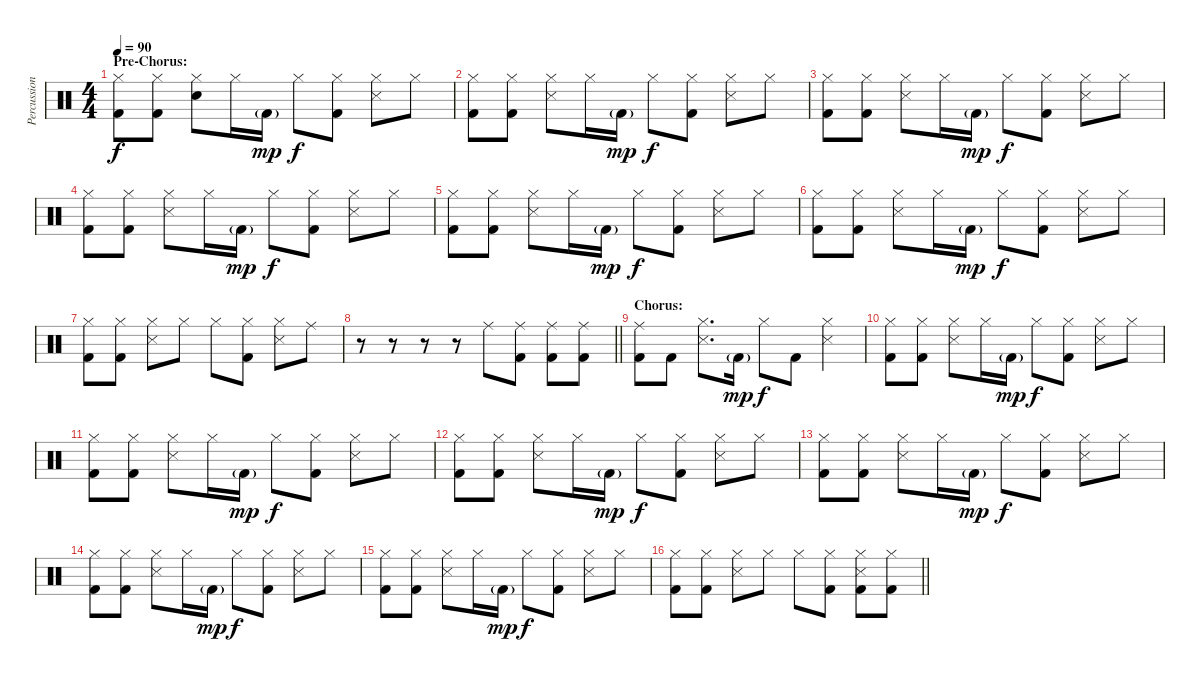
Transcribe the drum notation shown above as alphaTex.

\track ("Percussion" "Percussion") {instrument percussion}
\staff {score}
\articulation defaults
\ts (4 4)
\section ("" "Pre-Chorus:")
\tempo 90
\clef neutral
\ks c
("Hi-Hat (closed)" "Kick (hit) 2").8{dy f} ("Hi-Hat (closed)" "Kick (hit) 2").8 ("Hi-Hat (closed)" "Electric Snare (hit)").8 "Hi-Hat (closed)".16 "Kick (hit) 2"{g}.16{dy mp} "Hi-Hat (closed)".8{dy f} ("Hi-Hat (closed)" "Kick (hit) 2").8 ("Hi-Hat (closed)" "Snare (side stick) 3").8 "Hi-Hat (closed)".8 |
("Hi-Hat (closed)" "Kick (hit) 2").8 ("Hi-Hat (closed)" "Kick (hit) 2").8 ("Hi-Hat (closed)" "Snare (side stick) 3").8 "Hi-Hat (closed)".16 "Kick (hit) 2"{g}.16{dy mp} "Hi-Hat (closed)".8{dy f} ("Hi-Hat (closed)" "Kick (hit) 2").8 ("Hi-Hat (closed)" "Snare (side stick) 3").8 "Hi-Hat (closed)".8 |
("Hi-Hat (closed)" "Kick (hit) 2").8 ("Hi-Hat (closed)" "Kick (hit) 2").8 ("Hi-Hat (closed)" "Snare (side stick) 3").8 "Hi-Hat (closed)".16 "Kick (hit) 2"{g}.16{dy mp} "Hi-Hat (closed)".8{dy f} ("Hi-Hat (closed)" "Kick (hit) 2").8 ("Hi-Hat (closed)" "Snare (side stick) 3").8 "Hi-Hat (closed)".8 |
("Hi-Hat (closed)" "Kick (hit) 2").8 ("Hi-Hat (closed)" "Kick (hit) 2").8 ("Hi-Hat (closed)" "Snare (side stick) 3").8 "Hi-Hat (closed)".16 "Kick (hit) 2"{g}.16{dy mp} "Hi-Hat (closed)".8{dy f} ("Hi-Hat (closed)" "Kick (hit) 2").8 ("Hi-Hat (closed)" "Snare (side stick) 3").8 "Hi-Hat (closed)".8 |
("Hi-Hat (closed)" "Kick (hit) 2").8 ("Hi-Hat (closed)" "Kick (hit) 2").8 ("Hi-Hat (closed)" "Snare (side stick) 3").8 "Hi-Hat (closed)".16 "Kick (hit) 2"{g}.16{dy mp} "Hi-Hat (closed)".8{dy f} ("Hi-Hat (closed)" "Kick (hit) 2").8 ("Hi-Hat (closed)" "Snare (side stick) 3").8 "Hi-Hat (closed)".8 |
("Hi-Hat (closed)" "Kick (hit) 2").8 ("Hi-Hat (closed)" "Kick (hit) 2").8 ("Hi-Hat (closed)" "Snare (side stick) 3").8 "Hi-Hat (closed)".16 "Kick (hit) 2"{g}.16{dy mp} "Hi-Hat (closed)".8{dy f} ("Hi-Hat (closed)" "Kick (hit) 2").8 ("Hi-Hat (closed)" "Snare (side stick) 3").8 "Hi-Hat (closed)".8 |
("Hi-Hat (closed)" "Kick (hit) 2").8 ("Hi-Hat (closed)" "Kick (hit) 2").8 ("Hi-Hat (closed)" "Snare (side stick) 3").8 "Hi-Hat (closed)".8 "Hi-Hat (closed)".8 ("Hi-Hat (closed)" "Kick (hit) 2").8 ("Hi-Hat (closed)" "Snare (side stick) 3").8 "Ride (middle)".8 |
\barLineRight lightlight
r.8 r.8 r.8 r.8 "Ride (middle)".8 ("Ride (middle)" "Kick (hit) 2").8 ("Ride (middle)" "Kick (hit) 2").8 ("Ride (middle)" "Kick (hit) 2").8 |
\section ("" "Chorus:")
("Ride (middle)" "Kick (hit) 2").8 "Kick (hit) 2".8 ("Hi-Hat (closed)" "Snare (side stick) 3").8{d} "Kick (hit) 2"{g}.16{dy mp} "Hi-Hat (closed)".8{dy f} "Kick (hit) 2".8 ("Hi-Hat (closed)" "Snare (side stick) 3").4 |
("Hi-Hat (closed)" "Kick (hit) 2").8 ("Hi-Hat (closed)" "Kick (hit) 2").8 ("Hi-Hat (closed)" "Snare (side stick) 3").8 "Hi-Hat (closed)".16 "Kick (hit) 2"{g}.16{dy mp} "Hi-Hat (closed)".8{dy f} ("Hi-Hat (closed)" "Kick (hit) 2").8 ("Hi-Hat (closed)" "Snare (side stick) 3").8 "Hi-Hat (closed)".8 |
("Hi-Hat (closed)" "Kick (hit) 2").8 ("Hi-Hat (closed)" "Kick (hit) 2").8 ("Hi-Hat (closed)" "Snare (side stick) 3").8 "Hi-Hat (closed)".16 "Kick (hit) 2"{g}.16{dy mp} "Hi-Hat (closed)".8{dy f} ("Hi-Hat (closed)" "Kick (hit) 2").8 ("Hi-Hat (closed)" "Snare (side stick) 3").8 "Hi-Hat (closed)".8 |
("Hi-Hat (closed)" "Kick (hit) 2").8 ("Hi-Hat (closed)" "Kick (hit) 2").8 ("Hi-Hat (closed)" "Snare (side stick) 3").8 "Hi-Hat (closed)".16 "Kick (hit) 2"{g}.16{dy mp} "Hi-Hat (closed)".8{dy f} ("Hi-Hat (closed)" "Kick (hit) 2").8 ("Hi-Hat (closed)" "Snare (side stick) 3").8 "Hi-Hat (closed)".8 |
("Hi-Hat (closed)" "Kick (hit) 2").8 ("Hi-Hat (closed)" "Kick (hit) 2").8 ("Hi-Hat (closed)" "Snare (side stick) 3").8 "Hi-Hat (closed)".16 "Kick (hit) 2"{g}.16{dy mp} "Hi-Hat (closed)".8{dy f} ("Hi-Hat (closed)" "Kick (hit) 2").8 ("Hi-Hat (closed)" "Snare (side stick) 3").8 "Hi-Hat (closed)".8 |
("Hi-Hat (closed)" "Kick (hit) 2").8 ("Hi-Hat (closed)" "Kick (hit) 2").8 ("Hi-Hat (closed)" "Snare (side stick) 3").8 "Hi-Hat (closed)".16 "Kick (hit) 2"{g}.16{dy mp} "Hi-Hat (closed)".8{dy f} ("Hi-Hat (closed)" "Kick (hit) 2").8 ("Hi-Hat (closed)" "Snare (side stick) 3").8 "Hi-Hat (closed)".8 |
("Hi-Hat (closed)" "Kick (hit) 2").8 ("Hi-Hat (closed)" "Kick (hit) 2").8 ("Hi-Hat (closed)" "Snare (side stick) 3").8 "Hi-Hat (closed)".16 "Kick (hit) 2"{g}.16{dy mp} "Hi-Hat (closed)".8{dy f} ("Hi-Hat (closed)" "Kick (hit) 2").8 ("Hi-Hat (closed)" "Snare (side stick) 3").8 "Hi-Hat (closed)".8 |
\barLineRight lightlight
("Hi-Hat (closed)" "Kick (hit) 2").8 ("Hi-Hat (closed)" "Kick (hit) 2").8 ("Hi-Hat (closed)" "Snare (side stick) 3").8 "Hi-Hat (closed)".8 "Hi-Hat (closed)".8 ("Hi-Hat (closed)" "Kick (hit) 2").8 ("Hi-Hat (closed)" "Snare (side stick) 3" "Kick (hit) 2").8 ("Hi-Hat (closed)" "Kick (hit) 2").8
